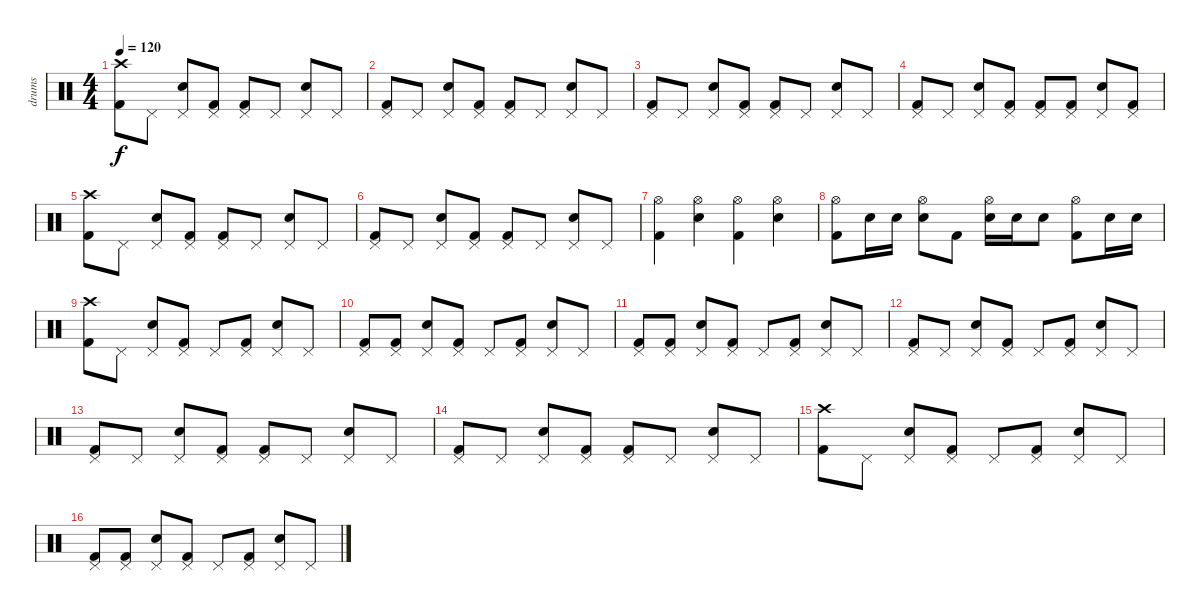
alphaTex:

\track ("drums" "drums") {instrument percussion}
\staff {score}
\articulation defaults
\ts (4 4)
\tempo 120
\clef neutral
\ks c
("Crash high (hit)" "Kick (hit) 2").8{dy f} "Pedal Hi-Hat (hit)".8 ("Pedal Hi-Hat (hit)" "Electric Snare (hit)").8 ("Pedal Hi-Hat (hit)" "Kick (hit) 2").8 ("Pedal Hi-Hat (hit)" "Kick (hit) 2").8 "Pedal Hi-Hat (hit)".8 ("Pedal Hi-Hat (hit)" "Electric Snare (hit)").8 "Pedal Hi-Hat (hit)".8 |
("Pedal Hi-Hat (hit)" "Kick (hit) 2").8 "Pedal Hi-Hat (hit)".8 ("Pedal Hi-Hat (hit)" "Electric Snare (hit)").8 ("Pedal Hi-Hat (hit)" "Kick (hit) 2").8 ("Pedal Hi-Hat (hit)" "Kick (hit) 2").8 "Pedal Hi-Hat (hit)".8 ("Pedal Hi-Hat (hit)" "Electric Snare (hit)").8 "Pedal Hi-Hat (hit)".8 |
("Pedal Hi-Hat (hit)" "Kick (hit) 2").8 "Pedal Hi-Hat (hit)".8 ("Pedal Hi-Hat (hit)" "Electric Snare (hit)").8 ("Pedal Hi-Hat (hit)" "Kick (hit) 2").8 ("Pedal Hi-Hat (hit)" "Kick (hit) 2").8 "Pedal Hi-Hat (hit)".8 ("Pedal Hi-Hat (hit)" "Electric Snare (hit)").8 "Pedal Hi-Hat (hit)".8 |
("Pedal Hi-Hat (hit)" "Kick (hit) 2").8 "Pedal Hi-Hat (hit)".8 ("Pedal Hi-Hat (hit)" "Electric Snare (hit)").8 ("Pedal Hi-Hat (hit)" "Kick (hit) 2").8 ("Pedal Hi-Hat (hit)" "Kick (hit) 2").8 ("Pedal Hi-Hat (hit)" "Kick (hit) 2").8 ("Pedal Hi-Hat (hit)" "Electric Snare (hit)").8 ("Pedal Hi-Hat (hit)" "Kick (hit) 2").8 |
("Crash high (hit)" "Kick (hit) 2").8 "Pedal Hi-Hat (hit)".8 ("Pedal Hi-Hat (hit)" "Electric Snare (hit)").8 ("Pedal Hi-Hat (hit)" "Kick (hit) 2").8 ("Pedal Hi-Hat (hit)" "Kick (hit) 2").8 "Pedal Hi-Hat (hit)".8 ("Pedal Hi-Hat (hit)" "Electric Snare (hit)").8 "Pedal Hi-Hat (hit)".8 |
("Pedal Hi-Hat (hit)" "Kick (hit) 2").8 "Pedal Hi-Hat (hit)".8 ("Pedal Hi-Hat (hit)" "Electric Snare (hit)").8 ("Pedal Hi-Hat (hit)" "Kick (hit) 2").8 ("Pedal Hi-Hat (hit)" "Kick (hit) 2").8 "Pedal Hi-Hat (hit)".8 ("Pedal Hi-Hat (hit)" "Electric Snare (hit)").8 "Pedal Hi-Hat (hit)".8 |
("Hi-Hat (open)" "Kick (hit) 2").4 ("Hi-Hat (open)" "Snare (hit) 2").4 ("Hi-Hat (open)" "Kick (hit) 2").4 ("Hi-Hat (open)" "Snare (hit) 2").4 |
("Hi-Hat (open)" "Kick (hit) 2").8 "Electric Snare (hit)".16 "Electric Snare (hit)".16 ("Hi-Hat (open)" "Electric Snare (hit)").8 "Kick (hit) 2".8 ("Hi-Hat (open)" "Electric Snare (hit)").16 "Electric Snare (hit)".16 "Electric Snare (hit)".8 ("Hi-Hat (open)" "Kick (hit) 2").8 "Electric Snare (hit)".16 "Electric Snare (hit)".16 |
("Crash high (hit)" "Kick (hit) 2").8 "Pedal Hi-Hat (hit)".8 ("Pedal Hi-Hat (hit)" "Electric Snare (hit)").8 ("Pedal Hi-Hat (hit)" "Kick (hit) 2").8 "Pedal Hi-Hat (hit)".8 ("Pedal Hi-Hat (hit)" "Kick (hit) 2").8 ("Pedal Hi-Hat (hit)" "Electric Snare (hit)").8 "Pedal Hi-Hat (hit)".8 |
("Pedal Hi-Hat (hit)" "Kick (hit) 2").8 ("Pedal Hi-Hat (hit)" "Kick (hit) 2").8 ("Pedal Hi-Hat (hit)" "Electric Snare (hit)").8 ("Pedal Hi-Hat (hit)" "Kick (hit) 2").8 "Pedal Hi-Hat (hit)".8 ("Pedal Hi-Hat (hit)" "Kick (hit) 2").8 ("Pedal Hi-Hat (hit)" "Electric Snare (hit)").8 "Pedal Hi-Hat (hit)".8 |
("Pedal Hi-Hat (hit)" "Kick (hit) 2").8 ("Pedal Hi-Hat (hit)" "Kick (hit) 2").8 ("Pedal Hi-Hat (hit)" "Electric Snare (hit)").8 ("Pedal Hi-Hat (hit)" "Kick (hit) 2").8 "Pedal Hi-Hat (hit)".8 ("Pedal Hi-Hat (hit)" "Kick (hit) 2").8 ("Pedal Hi-Hat (hit)" "Electric Snare (hit)").8 "Pedal Hi-Hat (hit)".8 |
("Pedal Hi-Hat (hit)" "Kick (hit) 2").8 "Pedal Hi-Hat (hit)".8 ("Pedal Hi-Hat (hit)" "Electric Snare (hit)").8 ("Pedal Hi-Hat (hit)" "Kick (hit) 2").8 "Pedal Hi-Hat (hit)".8 ("Pedal Hi-Hat (hit)" "Kick (hit) 2").8 ("Pedal Hi-Hat (hit)" "Electric Snare (hit)").8 "Pedal Hi-Hat (hit)".8 |
("Pedal Hi-Hat (hit)" "Kick (hit) 2").8 "Pedal Hi-Hat (hit)".8 ("Pedal Hi-Hat (hit)" "Electric Snare (hit)").8 ("Pedal Hi-Hat (hit)" "Kick (hit) 2").8 ("Pedal Hi-Hat (hit)" "Kick (hit) 2").8 "Pedal Hi-Hat (hit)".8 ("Pedal Hi-Hat (hit)" "Electric Snare (hit)").8 "Pedal Hi-Hat (hit)".8 |
("Pedal Hi-Hat (hit)" "Kick (hit) 2").8 "Pedal Hi-Hat (hit)".8 ("Pedal Hi-Hat (hit)" "Electric Snare (hit)").8 ("Pedal Hi-Hat (hit)" "Kick (hit) 2").8 ("Pedal Hi-Hat (hit)" "Kick (hit) 2").8 "Pedal Hi-Hat (hit)".8 ("Pedal Hi-Hat (hit)" "Electric Snare (hit)").8 "Pedal Hi-Hat (hit)".8 |
("Crash high (hit)" "Kick (hit) 2").8 "Pedal Hi-Hat (hit)".8 ("Pedal Hi-Hat (hit)" "Electric Snare (hit)").8 ("Pedal Hi-Hat (hit)" "Kick (hit) 2").8 "Pedal Hi-Hat (hit)".8 ("Pedal Hi-Hat (hit)" "Kick (hit) 2").8 ("Pedal Hi-Hat (hit)" "Electric Snare (hit)").8 "Pedal Hi-Hat (hit)".8 |
("Pedal Hi-Hat (hit)" "Kick (hit) 2").8 ("Pedal Hi-Hat (hit)" "Kick (hit) 2").8 ("Pedal Hi-Hat (hit)" "Electric Snare (hit)").8 ("Pedal Hi-Hat (hit)" "Kick (hit) 2").8 "Pedal Hi-Hat (hit)".8 ("Pedal Hi-Hat (hit)" "Kick (hit) 2").8 ("Pedal Hi-Hat (hit)" "Electric Snare (hit)").8 "Pedal Hi-Hat (hit)".8
